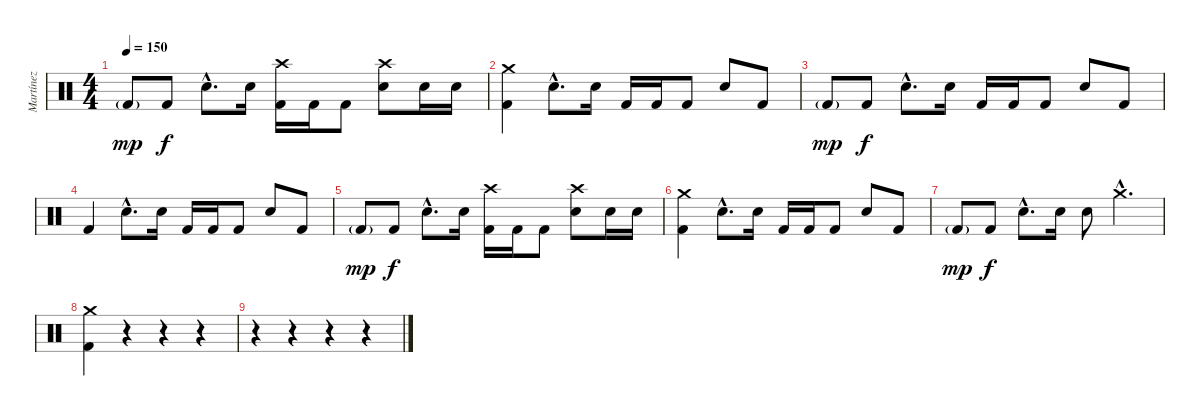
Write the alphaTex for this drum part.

\track ("Martínez" "Martínez") {instrument percussion}
\staff {score}
\articulation defaults
\ts (4 4)
\tempo 150
\clef neutral
\ks c "Kick (hit) 2"{g}.8{dy mp} "Kick (hit) 2".8{dy f} "Electric Snare (hit)"{hac}.8{d} "Electric Snare (hit)".16
("Crash high (hit)" "Kick (hit) 2").16 "Kick (hit) 2".16 "Kick (hit) 2".8 ("Crash high (hit)" "Electric Snare (hit)").8 "Electric Snare (hit)".16 "Electric Snare (hit)".16 |
("Crash medium (hit)" "Kick (hit) 2").4 "Electric Snare (hit)"{hac}.8{d} "Electric Snare (hit)".16 "Kick (hit) 2".16 "Kick (hit) 2".16 "Kick (hit) 2".8 "Electric Snare (hit)".8 "Kick (hit) 2".8 |
"Kick (hit) 2"{g}.8{dy mp} "Kick (hit) 2".8{dy f} "Electric Snare (hit)"{hac}.8{d} "Electric Snare (hit)".16 "Kick (hit) 2".16 "Kick (hit) 2".16 "Kick (hit) 2".8 "Electric Snare (hit)".8 "Kick (hit) 2".8 |
"Kick (hit) 2".4 "Electric Snare (hit)"{hac}.8{d} "Electric Snare (hit)".16 "Kick (hit) 2".16 "Kick (hit) 2".16 "Kick (hit) 2".8 "Electric Snare (hit)".8 "Kick (hit) 2".8 |
"Kick (hit) 2"{g}.8{dy mp} "Kick (hit) 2".8{dy f} "Electric Snare (hit)"{hac}.8{d} "Electric Snare (hit)".16 ("Crash high (hit)" "Kick (hit) 2").16 "Kick (hit) 2".16 "Kick (hit) 2".8 ("Crash high (hit)" "Electric Snare (hit)").8 "Electric Snare (hit)".16 "Electric Snare (hit)".16 |
("Crash medium (hit)" "Kick (hit) 2").4 "Electric Snare (hit)"{hac}.8{d} "Electric Snare (hit)".16 "Kick (hit) 2".16 "Kick (hit) 2".16 "Kick (hit) 2".8 "Electric Snare (hit)".8 "Kick (hit) 2".8 |
"Kick (hit) 2"{g}.8{dy mp} "Kick (hit) 2".8{dy f} "Electric Snare (hit)"{hac}.8{d} "Electric Snare (hit)".16 "Electric Snare (hit)".8 "Crash medium (hit)"{hac}.4{d} |
("Crash medium (hit)" "Kick (hit) 2").4 r.4 r.4 r.4 |
r.4 r.4 r.4 r.4
